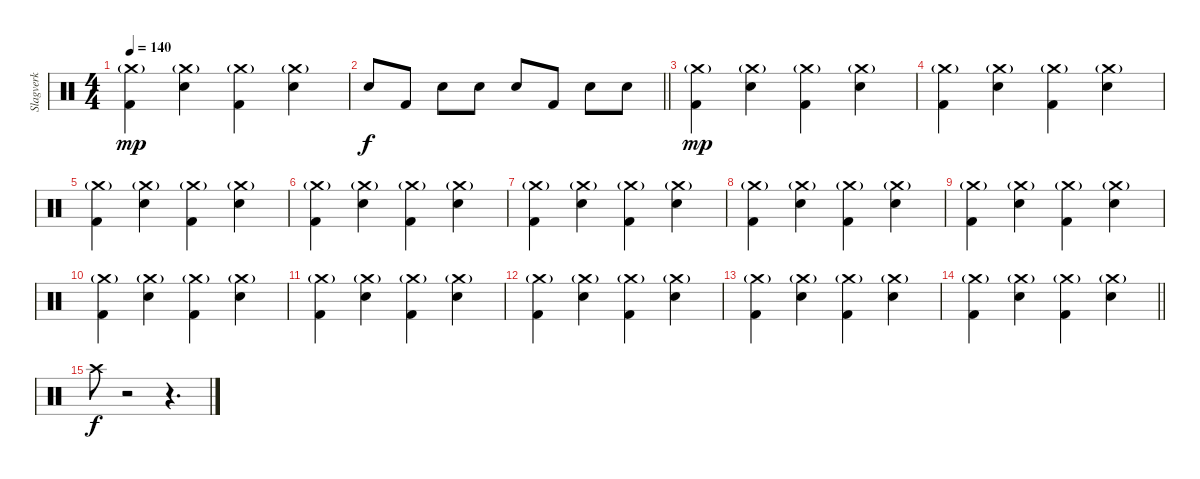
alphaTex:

\track ("Slagverk" "Slagverk") {instrument percussion}
\staff {score}
\articulation defaults
\ts (4 4)
\tempo 140
\clef neutral
\ks c
("Kick (hit) 2" "Crash medium (hit)"{g}).4{dy mp} ("Snare (hit) 2" "Crash medium (hit)"{g}).4 ("Kick (hit) 2" "Crash medium (hit)"{g}).4 ("Snare (hit) 2" "Crash medium (hit)"{g}).4 |
\barLineRight lightlight "Snare (hit) 2".8{dy f} "Kick (hit) 2".8 "Snare (hit) 2".8 "Snare (hit) 2".8 "Snare (hit) 2".8 "Kick (hit) 2".8 "Snare (hit) 2".8 "Snare (hit) 2".8
|
("Kick (hit) 2" "Crash medium (hit)"{g}).4{dy mp} ("Snare (hit) 2" "Crash medium (hit)"{g}).4 ("Kick (hit) 2" "Crash medium (hit)"{g}).4 ("Snare (hit) 2" "Crash medium (hit)"{g}).4 |
("Kick (hit) 2" "Crash medium (hit)"{g}).4 ("Snare (hit) 2" "Crash medium (hit)"{g}).4 ("Kick (hit) 2" "Crash medium (hit)"{g}).4 ("Snare (hit) 2" "Crash medium (hit)"{g}).4 |
("Kick (hit) 2" "Crash medium (hit)"{g}).4 ("Snare (hit) 2" "Crash medium (hit)"{g}).4 ("Kick (hit) 2" "Crash medium (hit)"{g}).4 ("Snare (hit) 2" "Crash medium (hit)"{g}).4 |
("Kick (hit) 2" "Crash medium (hit)"{g}).4 ("Snare (hit) 2" "Crash medium (hit)"{g}).4 ("Kick (hit) 2" "Crash medium (hit)"{g}).4 ("Snare (hit) 2" "Crash medium (hit)"{g}).4 |
("Kick (hit) 2" "Crash medium (hit)"{g}).4 ("Snare (hit) 2" "Crash medium (hit)"{g}).4 ("Kick (hit) 2" "Crash medium (hit)"{g}).4 ("Snare (hit) 2" "Crash medium (hit)"{g}).4 |
("Kick (hit) 2" "Crash medium (hit)"{g}).4 ("Snare (hit) 2" "Crash medium (hit)"{g}).4 ("Kick (hit) 2" "Crash medium (hit)"{g}).4 ("Snare (hit) 2" "Crash medium (hit)"{g}).4 |
("Kick (hit) 2" "Crash medium (hit)"{g}).4 ("Snare (hit) 2" "Crash medium (hit)"{g}).4 ("Kick (hit) 2" "Crash medium (hit)"{g}).4 ("Snare (hit) 2" "Crash medium (hit)"{g}).4 |
("Kick (hit) 2" "Crash medium (hit)"{g}).4 ("Snare (hit) 2" "Crash medium (hit)"{g}).4 ("Kick (hit) 2" "Crash medium (hit)"{g}).4 ("Snare (hit) 2" "Crash medium (hit)"{g}).4 |
("Kick (hit) 2" "Crash medium (hit)"{g}).4 ("Snare (hit) 2" "Crash medium (hit)"{g}).4 ("Kick (hit) 2" "Crash medium (hit)"{g}).4 ("Snare (hit) 2" "Crash medium (hit)"{g}).4 |
("Kick (hit) 2" "Crash medium (hit)"{g}).4 ("Snare (hit) 2" "Crash medium (hit)"{g}).4 ("Kick (hit) 2" "Crash medium (hit)"{g}).4 ("Snare (hit) 2" "Crash medium (hit)"{g}).4 |
("Kick (hit) 2" "Crash medium (hit)"{g}).4 ("Snare (hit) 2" "Crash medium (hit)"{g}).4 ("Kick (hit) 2" "Crash medium (hit)"{g}).4 ("Snare (hit) 2" "Crash medium (hit)"{g}).4 |
\barLineRight lightlight
("Kick (hit) 2" "Crash medium (hit)"{g}).4 ("Snare (hit) 2" "Crash medium (hit)"{g}).4 ("Kick (hit) 2" "Crash medium (hit)"{g}).4 ("Snare (hit) 2" "Crash medium (hit)"{g}).4 |
"Crash high (hit)".8{dy f} r.2 r.4{d}
